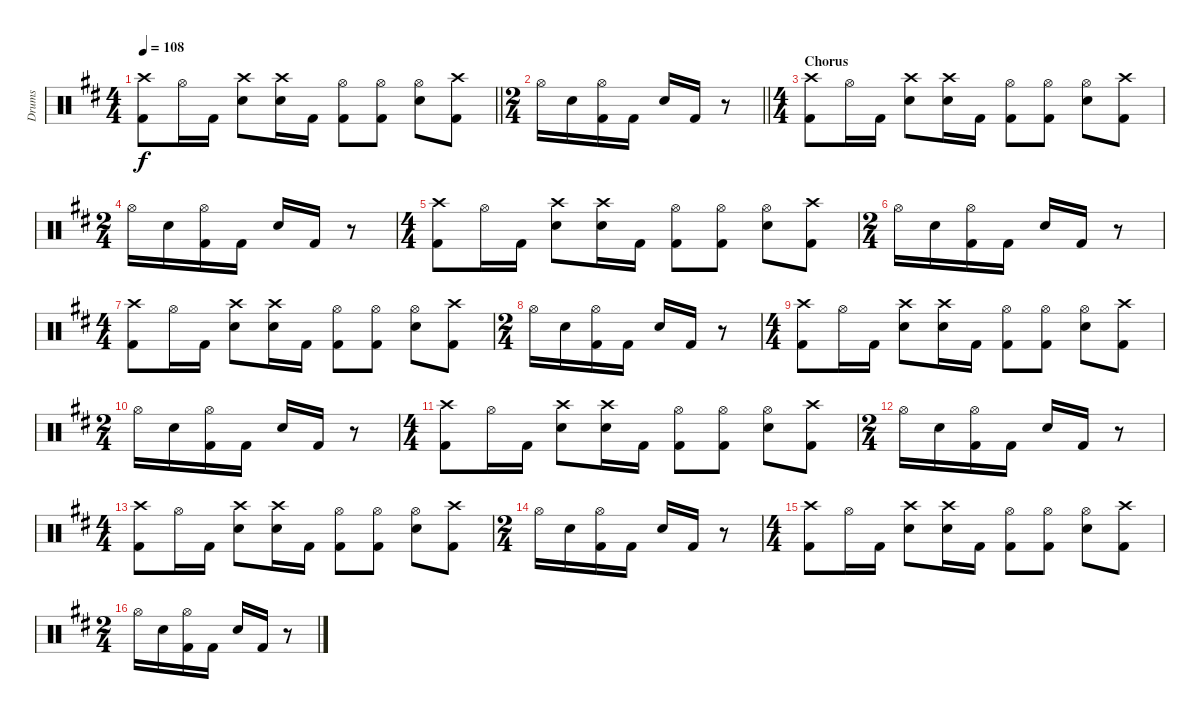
\track ("Drums" "Drums") {instrument percussion}
\staff {score}
\articulation defaults
\ts (4 4)
\tempo 108
\clef neutral
\barLineRight lightlight
\ks d
("Crash high (hit)" "Kick (hit) 2").8{dy f} "Hi-Hat (open)".16 "Kick (hit) 2".16 ("Crash high (hit)" "Snare (hit) 2").8 ("Crash high (hit)" "Snare (hit) 2").16 "Kick (hit) 2".16 ("Hi-Hat (open)" "Kick (hit) 2").8 ("Hi-Hat (open)" "Kick (hit) 2").8 ("Hi-Hat (open)" "Snare (hit) 2").8 ("Crash high (hit)" "Kick (hit) 2").8 |
\ts (2 4)
\section ("" "")
\barLineRight lightlight "Hi-Hat (open)".16 "Snare (hit) 2".16
("Hi-Hat (open)" "Kick (hit) 2").16 "Kick (hit) 2".16 "Snare (hit) 2".16 "Kick (hit) 2".16 r.8 |
\ts (4 4)
\section ("" "Chorus")
("Crash high (hit)" "Kick (hit) 2").8 "Hi-Hat (open)".16 "Kick (hit) 2".16 ("Crash high (hit)" "Snare (hit) 2").8 ("Crash high (hit)" "Snare (hit) 2").16 "Kick (hit) 2".16 ("Hi-Hat (open)" "Kick (hit) 2").8 ("Hi-Hat (open)" "Kick (hit) 2").8 ("Hi-Hat (open)" "Snare (hit) 2").8 ("Crash high (hit)" "Kick (hit) 2").8 |
\ts (2 4)
"Hi-Hat (open)".16 "Snare (hit) 2".16 ("Hi-Hat (open)" "Kick (hit) 2").16 "Kick (hit) 2".16 "Snare (hit) 2".16 "Kick (hit) 2".16 r.8 |
\ts (4 4)
("Crash high (hit)" "Kick (hit) 2").8 "Hi-Hat (open)".16 "Kick (hit) 2".16 ("Crash high (hit)" "Snare (hit) 2").8 ("Crash high (hit)" "Snare (hit) 2").16 "Kick (hit) 2".16 ("Hi-Hat (open)" "Kick (hit) 2").8 ("Hi-Hat (open)" "Kick (hit) 2").8 ("Hi-Hat (open)" "Snare (hit) 2").8 ("Crash high (hit)" "Kick (hit) 2").8 |
\ts (2 4)
"Hi-Hat (open)".16 "Snare (hit) 2".16 ("Hi-Hat (open)" "Kick (hit) 2").16 "Kick (hit) 2".16 "Snare (hit) 2".16 "Kick (hit) 2".16 r.8 |
\ts (4 4)
("Crash high (hit)" "Kick (hit) 2").8 "Hi-Hat (open)".16 "Kick (hit) 2".16 ("Crash high (hit)" "Snare (hit) 2").8 ("Crash high (hit)" "Snare (hit) 2").16 "Kick (hit) 2".16 ("Hi-Hat (open)" "Kick (hit) 2").8 ("Hi-Hat (open)" "Kick (hit) 2").8 ("Hi-Hat (open)" "Snare (hit) 2").8 ("Crash high (hit)" "Kick (hit) 2").8 |
\ts (2 4)
"Hi-Hat (open)".16 "Snare (hit) 2".16 ("Hi-Hat (open)" "Kick (hit) 2").16 "Kick (hit) 2".16 "Snare (hit) 2".16 "Kick (hit) 2".16 r.8 |
\ts (4 4)
("Crash high (hit)" "Kick (hit) 2").8 "Hi-Hat (open)".16 "Kick (hit) 2".16 ("Crash high (hit)" "Snare (hit) 2").8 ("Crash high (hit)" "Snare (hit) 2").16 "Kick (hit) 2".16 ("Hi-Hat (open)" "Kick (hit) 2").8 ("Hi-Hat (open)" "Kick (hit) 2").8 ("Hi-Hat (open)" "Snare (hit) 2").8 ("Crash high (hit)" "Kick (hit) 2").8 |
\ts (2 4)
"Hi-Hat (open)".16 "Snare (hit) 2".16 ("Hi-Hat (open)" "Kick (hit) 2").16 "Kick (hit) 2".16 "Snare (hit) 2".16 "Kick (hit) 2".16 r.8 |
\ts (4 4)
("Crash high (hit)" "Kick (hit) 2").8 "Hi-Hat (open)".16 "Kick (hit) 2".16 ("Crash high (hit)" "Snare (hit) 2").8 ("Crash high (hit)" "Snare (hit) 2").16 "Kick (hit) 2".16 ("Hi-Hat (open)" "Kick (hit) 2").8 ("Hi-Hat (open)" "Kick (hit) 2").8 ("Hi-Hat (open)" "Snare (hit) 2").8 ("Crash high (hit)" "Kick (hit) 2").8 |
\ts (2 4)
"Hi-Hat (open)".16 "Snare (hit) 2".16 ("Hi-Hat (open)" "Kick (hit) 2").16 "Kick (hit) 2".16 "Snare (hit) 2".16 "Kick (hit) 2".16 r.8 |
\ts (4 4)
("Crash high (hit)" "Kick (hit) 2").8 "Hi-Hat (open)".16 "Kick (hit) 2".16 ("Crash high (hit)" "Snare (hit) 2").8 ("Crash high (hit)" "Snare (hit) 2").16 "Kick (hit) 2".16 ("Hi-Hat (open)" "Kick (hit) 2").8 ("Hi-Hat (open)" "Kick (hit) 2").8 ("Hi-Hat (open)" "Snare (hit) 2").8 ("Crash high (hit)" "Kick (hit) 2").8 |
\ts (2 4)
"Hi-Hat (open)".16 "Snare (hit) 2".16 ("Hi-Hat (open)" "Kick (hit) 2").16 "Kick (hit) 2".16 "Snare (hit) 2".16 "Kick (hit) 2".16 r.8 |
\ts (4 4)
("Crash high (hit)" "Kick (hit) 2").8 "Hi-Hat (open)".16 "Kick (hit) 2".16 ("Crash high (hit)" "Snare (hit) 2").8 ("Crash high (hit)" "Snare (hit) 2").16 "Kick (hit) 2".16 ("Hi-Hat (open)" "Kick (hit) 2").8 ("Hi-Hat (open)" "Kick (hit) 2").8 ("Hi-Hat (open)" "Snare (hit) 2").8 ("Crash high (hit)" "Kick (hit) 2").8 |
\ts (2 4)
"Hi-Hat (open)".16 "Snare (hit) 2".16 ("Hi-Hat (open)" "Kick (hit) 2").16 "Kick (hit) 2".16 "Snare (hit) 2".16 "Kick (hit) 2".16 r.8
